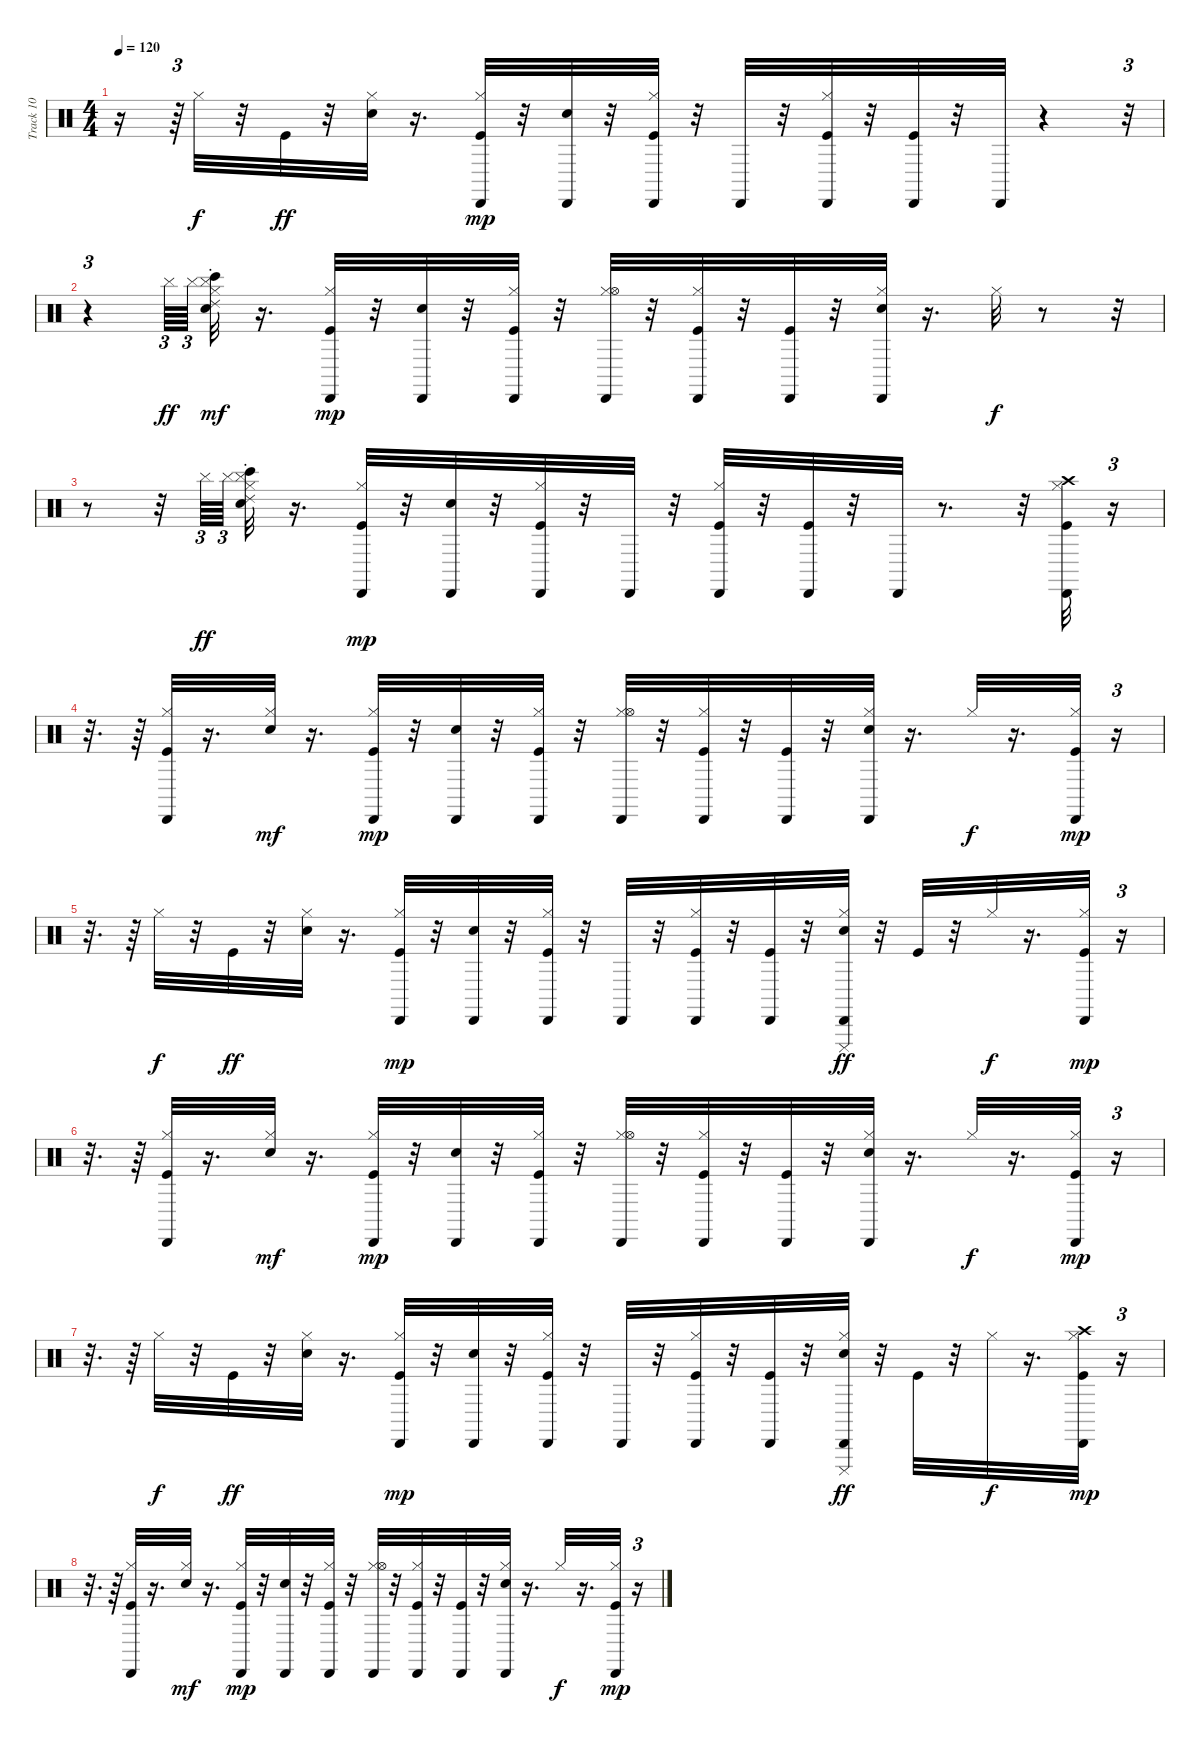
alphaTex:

\track ("Track 10" "Track 10") {instrument percussion}
\staff {score}
\articulation defaults
\ts (4 4)
\tempo 120
\clef neutral
\ks c
r.16{dy mp} r.64{tu (3 2)} "Hi-Hat (closed)".32{dy f} r.32 "Kick (hit)".32{dy ff} r.32 ("Electric Snare (hit)" "Hi-Hat (closed)").32 r.16{d} ("Kick (hit)" "Hi-Hat (closed)" "Cabasa (hit)").32{dy mp} r.32 ("Electric Snare (hit)" "Cabasa (hit)").32 r.32 ("Kick (hit)" "Hi-Hat (closed)" "Cabasa (hit)").32 r.32 "Cabasa (hit)".32 r.32 ("Kick (hit)" "Hi-Hat (closed)" "Cabasa (hit)").32 r.32 ("Kick (hit)" "Cabasa (hit)").32 r.32 "Cabasa (hit)".32 r.4 r.32{tu (3 2)} |
r.4{tu (3 2)} "Cymbal (hit)".64{tu (3 2) dy ff} "Cymbal (hit)".64{tu (3 2) beam splitsecondary} ("Cymbal (hit)" "Bongo High (hit)" "Ride (choke) 2" "Electric Snare (hit)" "Hi-Hat (closed)").32{dy mf} r.16{d} ("Kick (hit)" "Hi-Hat (closed)" "Cabasa (hit)").32{dy mp} r.32 ("Electric Snare (hit)" "Cabasa (hit)").32 r.32 ("Kick (hit)" "Hi-Hat (closed)" "Cabasa (hit)").32 r.32 ("Hi-Hat (closed)" "Hi-Hat (open)" "Cabasa (hit)").32 r.32 ("Kick (hit)" "Hi-Hat (closed)" "Cabasa (hit)").32 r.32 ("Kick (hit)" "Cabasa (hit)").32 r.32 ("Electric Snare (hit)" "Hi-Hat (closed)" "Cabasa (hit)").32 r.16{d} "Hi-Hat (closed)".32{dy f} r.8 r.32 |
r.8 r.32 "Cymbal (hit)".64{tu (3 2) dy ff} "Cymbal (hit)".64{tu (3 2) beam splitsecondary} ("Cymbal (hit)" "Bongo High (hit)" "Ride (choke) 2" "Electric Snare (hit)" "Hi-Hat (closed)").32 r.16{d} ("Kick (hit)" "Hi-Hat (closed)" "Cabasa (hit)").32{dy mp} r.32 ("Electric Snare (hit)" "Cabasa (hit)").32 r.32 ("Kick (hit)" "Hi-Hat (closed)" "Cabasa (hit)").32 r.32 "Cabasa (hit)".32 r.32 ("Kick (hit)" "Hi-Hat (closed)" "Cabasa (hit)").32 r.32 ("Kick (hit)" "Cabasa (hit)").32 r.32 "Cabasa (hit)".32 r.8{d} r.32 ("Kick (hit)" "Hi-Hat (closed)" "Crash high (hit)" "Cabasa (hit)").32 r.16{tu (3 2)} |
r.32{d} r.64 ("Kick (hit)" "Hi-Hat (closed)" "Cabasa (hit)").32 r.16{d} ("Electric Snare (hit)" "Hi-Hat (closed)").32{dy mf} r.16{d} ("Kick (hit)" "Hi-Hat (closed)" "Cabasa (hit)").32{dy mp} r.32 ("Electric Snare (hit)" "Cabasa (hit)").32 r.32 ("Kick (hit)" "Hi-Hat (closed)" "Cabasa (hit)").32 r.32 ("Hi-Hat (closed)" "Hi-Hat (open)" "Cabasa (hit)").32 r.32 ("Kick (hit)" "Hi-Hat (closed)" "Cabasa (hit)").32 r.32 ("Kick (hit)" "Cabasa (hit)").32 r.32 ("Electric Snare (hit)" "Hi-Hat (closed)" "Cabasa (hit)").32 r.16{d} "Hi-Hat (closed)".32{dy f} r.16{d} ("Kick (hit)" "Hi-Hat (closed)" "Cabasa (hit)").32{dy mp} r.16{tu (3 2)} |
r.32{d} r.64 "Hi-Hat (closed)".32{dy f} r.32 "Kick (hit)".32{dy ff} r.32 ("Electric Snare (hit)" "Hi-Hat (closed)").32 r.16{d} ("Kick (hit)" "Hi-Hat (closed)" "Cabasa (hit)").32{dy mp} r.32 ("Electric Snare (hit)" "Cabasa (hit)").32 r.32 ("Kick (hit)" "Hi-Hat (closed)" "Cabasa (hit)").32 r.32 "Cabasa (hit)".32 r.32 ("Kick (hit)" "Hi-Hat (closed)" "Cabasa (hit)").32 r.32 ("Kick (hit)" "Cabasa (hit)").32 r.32 ("Electric Snare (hit)" "Hi-Hat (closed)" "Cabasa (hit)" "Cuica (mute)").32{dy ff} r.32 "Kick (hit)".32 r.32 "Hi-Hat (closed)".32{dy f} r.16{d} ("Kick (hit)" "Hi-Hat (closed)" "Cabasa (hit)").32{dy mp} r.16{tu (3 2)} |
r.32{d} r.64 ("Kick (hit)" "Hi-Hat (closed)" "Cabasa (hit)").32 r.16{d} ("Electric Snare (hit)" "Hi-Hat (closed)").32{dy mf} r.16{d} ("Kick (hit)" "Hi-Hat (closed)" "Cabasa (hit)").32{dy mp} r.32 ("Electric Snare (hit)" "Cabasa (hit)").32 r.32 ("Kick (hit)" "Hi-Hat (closed)" "Cabasa (hit)").32 r.32 ("Hi-Hat (closed)" "Hi-Hat (open)" "Cabasa (hit)").32 r.32 ("Kick (hit)" "Hi-Hat (closed)" "Cabasa (hit)").32 r.32 ("Kick (hit)" "Cabasa (hit)").32 r.32 ("Electric Snare (hit)" "Hi-Hat (closed)" "Cabasa (hit)").32 r.16{d} "Hi-Hat (closed)".32{dy f} r.16{d} ("Kick (hit)" "Hi-Hat (closed)" "Cabasa (hit)").32{dy mp} r.16{tu (3 2)} |
r.32{d} r.64 "Hi-Hat (closed)".32{dy f} r.32 "Kick (hit)".32{dy ff} r.32 ("Electric Snare (hit)" "Hi-Hat (closed)").32 r.16{d} ("Kick (hit)" "Hi-Hat (closed)" "Cabasa (hit)").32{dy mp} r.32 ("Electric Snare (hit)" "Cabasa (hit)").32 r.32 ("Kick (hit)" "Hi-Hat (closed)" "Cabasa (hit)").32 r.32 "Cabasa (hit)".32 r.32 ("Kick (hit)" "Hi-Hat (closed)" "Cabasa (hit)").32 r.32 ("Kick (hit)" "Cabasa (hit)").32 r.32 ("Electric Snare (hit)" "Hi-Hat (closed)" "Cabasa (hit)" "Cuica (mute)").32{dy ff} r.32 "Kick (hit)".32 r.32 "Hi-Hat (closed)".32{dy f} r.16{d} ("Kick (hit)" "Hi-Hat (closed)" "Crash high (hit)" "Cabasa (hit)").32{dy mp} r.16{tu (3 2)} |
r.32{d} r.64 ("Kick (hit)" "Hi-Hat (closed)" "Cabasa (hit)").32 r.16{d} ("Electric Snare (hit)" "Hi-Hat (closed)").32{dy mf} r.16{d} ("Kick (hit)" "Hi-Hat (closed)" "Cabasa (hit)").32{dy mp} r.32 ("Electric Snare (hit)" "Cabasa (hit)").32 r.32 ("Kick (hit)" "Hi-Hat (closed)" "Cabasa (hit)").32 r.32 ("Hi-Hat (closed)" "Hi-Hat (open)" "Cabasa (hit)").32 r.32 ("Kick (hit)" "Hi-Hat (closed)" "Cabasa (hit)").32 r.32 ("Kick (hit)" "Cabasa (hit)").32 r.32 ("Electric Snare (hit)" "Hi-Hat (closed)" "Cabasa (hit)").32 r.16{d} "Hi-Hat (closed)".32{dy f} r.16{d} ("Kick (hit)" "Hi-Hat (closed)" "Cabasa (hit)").32{dy mp} r.16{tu (3 2)}
